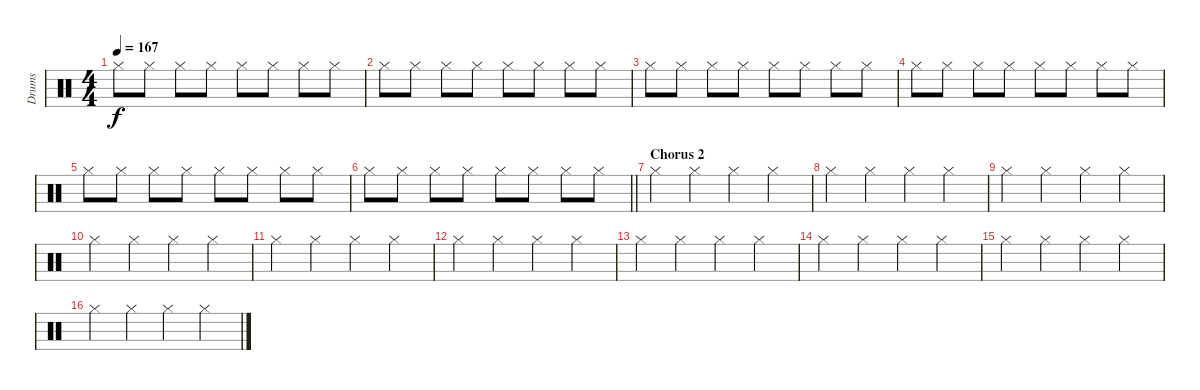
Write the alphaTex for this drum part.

\track ("Drums" "Drums") {instrument percussion}
\staff {score}
\articulation defaults
\ts (4 4)
\tempo 167
\clef neutral
\ks c "Hi-Hat (closed)".8{dy f} "Hi-Hat (closed)".8 "Hi-Hat (closed)".8 "Hi-Hat (closed)".8 "Hi-Hat (closed)".8 "Hi-Hat (closed)".8 "Hi-Hat (closed)".8 "Hi-Hat (closed)".8
|
"Hi-Hat (closed)".8 "Hi-Hat (closed)".8 "Hi-Hat (closed)".8 "Hi-Hat (closed)".8 "Hi-Hat (closed)".8 "Hi-Hat (closed)".8 "Hi-Hat (closed)".8 "Hi-Hat (closed)".8 |
"Hi-Hat (closed)".8 "Hi-Hat (closed)".8 "Hi-Hat (closed)".8 "Hi-Hat (closed)".8 "Hi-Hat (closed)".8 "Hi-Hat (closed)".8 "Hi-Hat (closed)".8 "Hi-Hat (closed)".8 |
"Hi-Hat (closed)".8 "Hi-Hat (closed)".8 "Hi-Hat (closed)".8 "Hi-Hat (closed)".8 "Hi-Hat (closed)".8 "Hi-Hat (closed)".8 "Hi-Hat (closed)".8 "Hi-Hat (closed)".8 |
"Hi-Hat (closed)".8 "Hi-Hat (closed)".8 "Hi-Hat (closed)".8 "Hi-Hat (closed)".8 "Hi-Hat (closed)".8 "Hi-Hat (closed)".8 "Hi-Hat (closed)".8 "Hi-Hat (closed)".8 |
\barLineRight lightlight "Hi-Hat (closed)".8 "Hi-Hat (closed)".8 "Hi-Hat (closed)".8 "Hi-Hat (closed)".8 "Hi-Hat (closed)".8 "Hi-Hat (closed)".8 "Hi-Hat (closed)".8 "Hi-Hat (closed)".8
|
\section ("" "Chorus 2")
"Hi-Hat (closed)".4 "Hi-Hat (closed)".4 "Hi-Hat (closed)".4 "Hi-Hat (closed)".4 |
"Hi-Hat (closed)".4 "Hi-Hat (closed)".4 "Hi-Hat (closed)".4 "Hi-Hat (closed)".4 |
"Hi-Hat (closed)".4 "Hi-Hat (closed)".4 "Hi-Hat (closed)".4 "Hi-Hat (closed)".4 |
"Hi-Hat (closed)".4 "Hi-Hat (closed)".4 "Hi-Hat (closed)".4 "Hi-Hat (closed)".4 |
"Hi-Hat (closed)".4 "Hi-Hat (closed)".4 "Hi-Hat (closed)".4 "Hi-Hat (closed)".4 |
"Hi-Hat (closed)".4 "Hi-Hat (closed)".4 "Hi-Hat (closed)".4 "Hi-Hat (closed)".4 |
"Hi-Hat (closed)".4 "Hi-Hat (closed)".4 "Hi-Hat (closed)".4 "Hi-Hat (closed)".4 |
"Hi-Hat (closed)".4 "Hi-Hat (closed)".4 "Hi-Hat (closed)".4 "Hi-Hat (closed)".4 |
"Hi-Hat (closed)".4 "Hi-Hat (closed)".4 "Hi-Hat (closed)".4 "Hi-Hat (closed)".4 |
"Hi-Hat (closed)".4 "Hi-Hat (closed)".4 "Hi-Hat (closed)".4 "Hi-Hat (closed)".4
